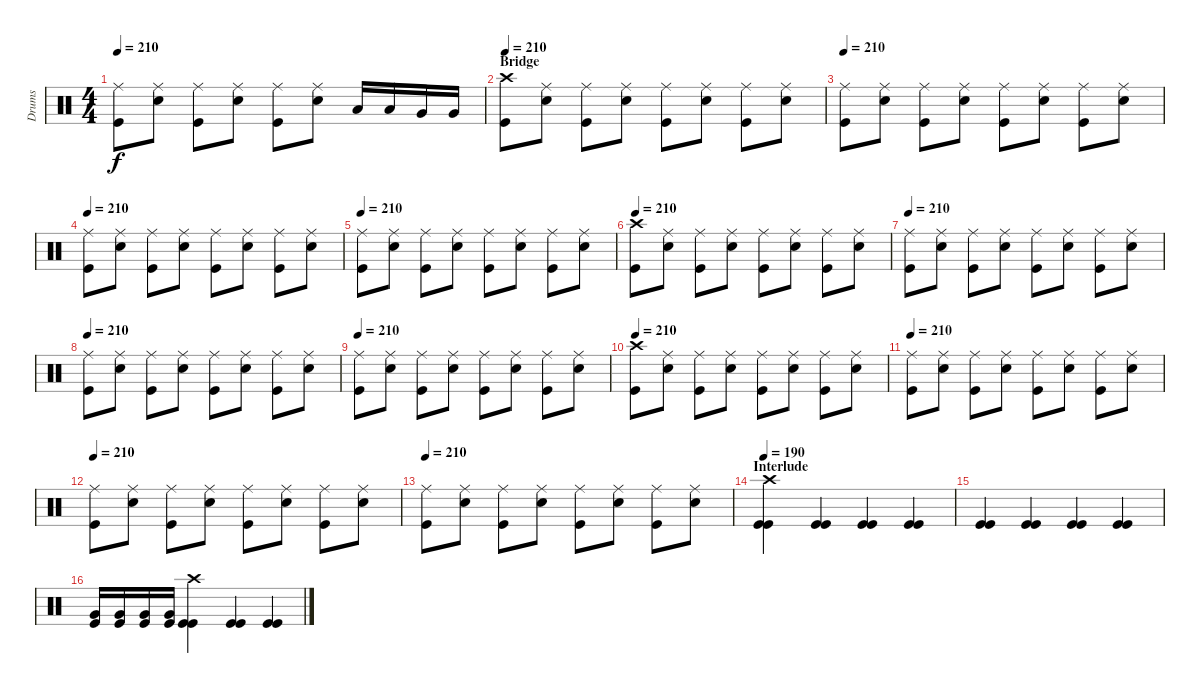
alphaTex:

\track ("Drums" "Drums") {instrument percussion}
\staff {score}
\articulation defaults
\ts (4 4)
\tempo 210
\clef neutral
\ks c
("Ride (middle)" "Kick (hit)").8{dy f} ("Ride (middle)" "Snare (hit) 2").8 ("Ride (middle)" "Kick (hit)").8 ("Ride (middle)" "Snare (hit) 2").8 ("Ride (middle)" "Kick (hit)").8 ("Ride (middle)" "Snare (hit) 2").8 "Low Tom (hit)".16 "Low Tom (hit)".16 "Very Low Tom (hit)".16 "Very Low Tom (hit)".16 |
\section ("" "Bridge")
\tempo 210
("Crash high (hit)" "Kick (hit)").8 ("Ride (middle)" "Snare (hit) 2").8 ("Ride (middle)" "Kick (hit)").8 ("Ride (middle)" "Snare (hit) 2").8 ("Ride (middle)" "Kick (hit)").8 ("Ride (middle)" "Snare (hit) 2").8 ("Ride (middle)" "Kick (hit)").8 ("Ride (middle)" "Snare (hit) 2").8 |
\tempo 210
("Ride (middle)" "Kick (hit)").8 ("Ride (middle)" "Snare (hit) 2").8 ("Ride (middle)" "Kick (hit)").8 ("Ride (middle)" "Snare (hit) 2").8 ("Ride (middle)" "Kick (hit)").8 ("Ride (middle)" "Snare (hit) 2").8 ("Ride (middle)" "Kick (hit)").8 ("Ride (middle)" "Snare (hit) 2").8 |
\tempo 210
("Ride (middle)" "Kick (hit)").8 ("Ride (middle)" "Snare (hit) 2").8 ("Ride (middle)" "Kick (hit)").8 ("Ride (middle)" "Snare (hit) 2").8 ("Ride (middle)" "Kick (hit)").8 ("Ride (middle)" "Snare (hit) 2").8 ("Ride (middle)" "Kick (hit)").8 ("Ride (middle)" "Snare (hit) 2").8 |
\tempo 210
("Ride (middle)" "Kick (hit)").8 ("Ride (middle)" "Snare (hit) 2").8 ("Ride (middle)" "Kick (hit)").8 ("Ride (middle)" "Snare (hit) 2").8 ("Ride (middle)" "Kick (hit)").8 ("Ride (middle)" "Snare (hit) 2").8 ("Ride (middle)" "Kick (hit)").8 ("Ride (middle)" "Snare (hit) 2").8 |
\tempo 210
("Crash high (hit)" "Kick (hit)").8 ("Ride (middle)" "Snare (hit) 2").8 ("Ride (middle)" "Kick (hit)").8 ("Ride (middle)" "Snare (hit) 2").8 ("Ride (middle)" "Kick (hit)").8 ("Ride (middle)" "Snare (hit) 2").8 ("Ride (middle)" "Kick (hit)").8 ("Ride (middle)" "Snare (hit) 2").8 |
\tempo 210
("Ride (middle)" "Kick (hit)").8 ("Ride (middle)" "Snare (hit) 2").8 ("Ride (middle)" "Kick (hit)").8 ("Ride (middle)" "Snare (hit) 2").8 ("Ride (middle)" "Kick (hit)").8 ("Ride (middle)" "Snare (hit) 2").8 ("Ride (middle)" "Kick (hit)").8 ("Ride (middle)" "Snare (hit) 2").8 |
\tempo 210
("Ride (middle)" "Kick (hit)").8 ("Ride (middle)" "Snare (hit) 2").8 ("Ride (middle)" "Kick (hit)").8 ("Ride (middle)" "Snare (hit) 2").8 ("Ride (middle)" "Kick (hit)").8 ("Ride (middle)" "Snare (hit) 2").8 ("Ride (middle)" "Kick (hit)").8 ("Ride (middle)" "Snare (hit) 2").8 |
\tempo 210
("Ride (middle)" "Kick (hit)").8 ("Ride (middle)" "Snare (hit) 2").8 ("Ride (middle)" "Kick (hit)").8 ("Ride (middle)" "Snare (hit) 2").8 ("Ride (middle)" "Kick (hit)").8 ("Ride (middle)" "Snare (hit) 2").8 ("Ride (middle)" "Kick (hit)").8 ("Ride (middle)" "Snare (hit) 2").8 |
\tempo 210
("Crash high (hit)" "Kick (hit)").8 ("Ride (middle)" "Snare (hit) 2").8 ("Ride (middle)" "Kick (hit)").8 ("Ride (middle)" "Snare (hit) 2").8 ("Ride (middle)" "Kick (hit)").8 ("Ride (middle)" "Snare (hit) 2").8 ("Ride (middle)" "Kick (hit)").8 ("Ride (middle)" "Snare (hit) 2").8 |
\tempo 210
("Ride (middle)" "Kick (hit)").8 ("Ride (middle)" "Snare (hit) 2").8 ("Ride (middle)" "Kick (hit)").8 ("Ride (middle)" "Snare (hit) 2").8 ("Ride (middle)" "Kick (hit)").8 ("Ride (middle)" "Snare (hit) 2").8 ("Ride (middle)" "Kick (hit)").8 ("Ride (middle)" "Snare (hit) 2").8 |
\tempo 210
("Ride (middle)" "Kick (hit)").8 ("Ride (middle)" "Snare (hit) 2").8 ("Ride (middle)" "Kick (hit)").8 ("Ride (middle)" "Snare (hit) 2").8 ("Ride (middle)" "Kick (hit)").8 ("Ride (middle)" "Snare (hit) 2").8 ("Ride (middle)" "Kick (hit)").8 ("Ride (middle)" "Snare (hit) 2").8 |
\tempo 210
("Ride (middle)" "Kick (hit)").8 ("Ride (middle)" "Snare (hit) 2").8 ("Ride (middle)" "Kick (hit)").8 ("Ride (middle)" "Snare (hit) 2").8 ("Ride (middle)" "Kick (hit)").8 ("Ride (middle)" "Snare (hit) 2").8 ("Ride (middle)" "Kick (hit)").8 ("Ride (middle)" "Snare (hit) 2").8 |
\section ("" "Interlude")
\tempo 190
("Crash high (hit)" "Kick (hit)" "Kick (hit)").4 ("Kick (hit)" "Kick (hit)").4 ("Kick (hit)" "Kick (hit)").4 ("Kick (hit)" "Kick (hit)").4 |
("Kick (hit)" "Kick (hit)").4 ("Kick (hit)" "Kick (hit)").4 ("Kick (hit)" "Kick (hit)").4 ("Kick (hit)" "Kick (hit)").4 |
("Very Low Tom (hit)" "Kick (hit)").16 ("Very Low Tom (hit)" "Kick (hit)").16 ("Very Low Tom (hit)" "Kick (hit)").16 ("Very Low Tom (hit)" "Kick (hit)").16 ("Crash high (hit)" "Kick (hit)" "Kick (hit)").4 ("Kick (hit)" "Kick (hit)").4 ("Kick (hit)" "Kick (hit)").4
